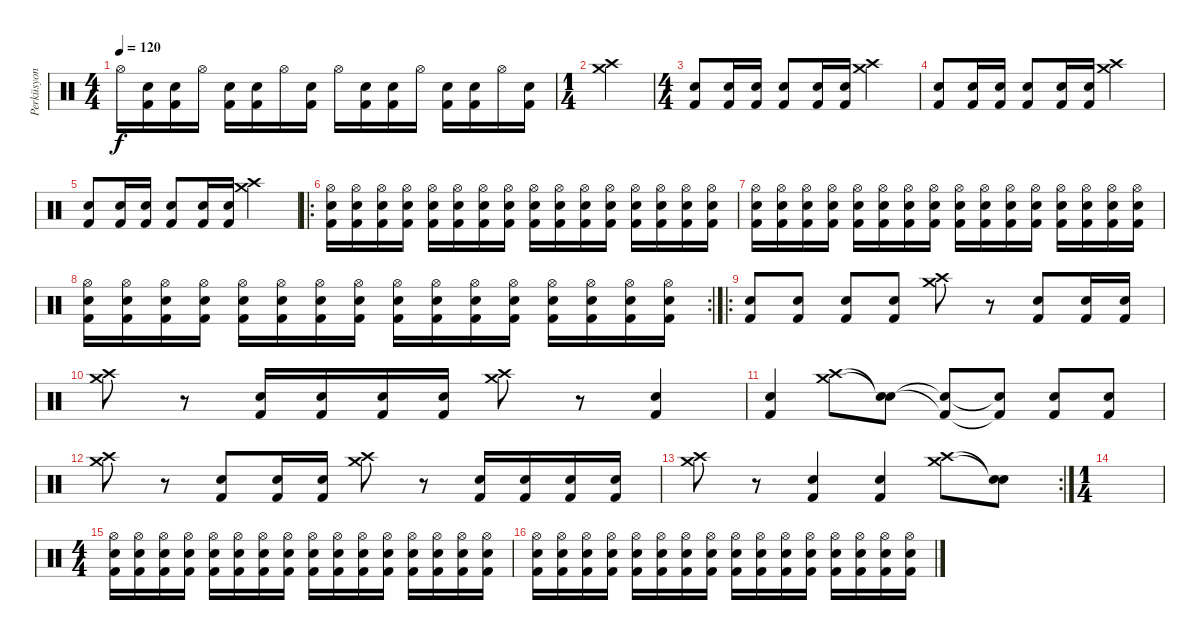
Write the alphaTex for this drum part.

\track ("Perküsyon" "Perküsyon") {instrument percussion}
\staff {score}
\articulation defaults
\ts (4 4)
\tempo 120
\clef neutral
\ks c "Hi-Hat (open)".16{dy f}
("Snare (hit) 2" "Kick (hit) 2").16 ("Snare (hit) 2" "Kick (hit) 2").16 "Hi-Hat (open)".16 ("Snare (hit) 2" "Kick (hit) 2").16 ("Snare (hit) 2" "Kick (hit) 2").16 "Hi-Hat (open)".16 ("Snare (hit) 2" "Kick (hit) 2").16 "Hi-Hat (open)".16 ("Snare (hit) 2" "Kick (hit) 2").16 ("Snare (hit) 2" "Kick (hit) 2").16 "Hi-Hat (open)".16 ("Snare (hit) 2" "Kick (hit) 2").16 ("Snare (hit) 2" "Kick (hit) 2").16 "Hi-Hat (open)".16 ("Snare (hit) 2" "Kick (hit) 2").16 |
\ts (1 4)
("Crash medium (hit)" "Crash high (hit)").4 |
\ts (4 4)
("Kick (hit) 2" "Snare (hit) 2").8 ("Kick (hit) 2" "Snare (hit) 2").16 ("Kick (hit) 2" "Snare (hit) 2").16 ("Kick (hit) 2" "Snare (hit) 2").8 ("Kick (hit) 2" "Snare (hit) 2").16 ("Kick (hit) 2" "Snare (hit) 2").16 ("Crash medium (hit)" "Crash high (hit)").2 |
("Kick (hit) 2" "Snare (hit) 2").8 ("Kick (hit) 2" "Snare (hit) 2").16 ("Kick (hit) 2" "Snare (hit) 2").16 ("Kick (hit) 2" "Snare (hit) 2").8 ("Kick (hit) 2" "Snare (hit) 2").16 ("Kick (hit) 2" "Snare (hit) 2").16 ("Crash medium (hit)" "Crash high (hit)").2 |
("Kick (hit) 2" "Snare (hit) 2").8 ("Kick (hit) 2" "Snare (hit) 2").16 ("Kick (hit) 2" "Snare (hit) 2").16 ("Kick (hit) 2" "Snare (hit) 2").8 ("Kick (hit) 2" "Snare (hit) 2").16 ("Kick (hit) 2" "Snare (hit) 2").16 ("Crash medium (hit)" "Crash high (hit)").2 |
\ro
("Hi-Hat (open)" "Snare (hit) 2" "Kick (hit) 2").16 ("Hi-Hat (open)" "Snare (hit) 2" "Kick (hit) 2").16 ("Hi-Hat (open)" "Snare (hit) 2" "Kick (hit) 2").16 ("Hi-Hat (open)" "Snare (hit) 2" "Kick (hit) 2").16 ("Hi-Hat (open)" "Snare (hit) 2" "Kick (hit) 2").16 ("Hi-Hat (open)" "Snare (hit) 2" "Kick (hit) 2").16 ("Hi-Hat (open)" "Snare (hit) 2" "Kick (hit) 2").16 ("Hi-Hat (open)" "Snare (hit) 2" "Kick (hit) 2").16 ("Hi-Hat (open)" "Snare (hit) 2" "Kick (hit) 2").16 ("Hi-Hat (open)" "Snare (hit) 2" "Kick (hit) 2").16 ("Hi-Hat (open)" "Snare (hit) 2" "Kick (hit) 2").16 ("Hi-Hat (open)" "Snare (hit) 2" "Kick (hit) 2").16 ("Hi-Hat (open)" "Snare (hit) 2" "Kick (hit) 2").16 ("Hi-Hat (open)" "Snare (hit) 2" "Kick (hit) 2").16 ("Hi-Hat (open)" "Snare (hit) 2" "Kick (hit) 2").16 ("Hi-Hat (open)" "Snare (hit) 2" "Kick (hit) 2").16 |
("Hi-Hat (open)" "Snare (hit) 2" "Kick (hit) 2").16 ("Hi-Hat (open)" "Snare (hit) 2" "Kick (hit) 2").16 ("Hi-Hat (open)" "Snare (hit) 2" "Kick (hit) 2").16 ("Hi-Hat (open)" "Snare (hit) 2" "Kick (hit) 2").16 ("Hi-Hat (open)" "Snare (hit) 2" "Kick (hit) 2").16 ("Hi-Hat (open)" "Snare (hit) 2" "Kick (hit) 2").16 ("Hi-Hat (open)" "Snare (hit) 2" "Kick (hit) 2").16 ("Hi-Hat (open)" "Snare (hit) 2" "Kick (hit) 2").16 ("Hi-Hat (open)" "Snare (hit) 2" "Kick (hit) 2").16 ("Hi-Hat (open)" "Snare (hit) 2" "Kick (hit) 2").16 ("Hi-Hat (open)" "Snare (hit) 2" "Kick (hit) 2").16 ("Hi-Hat (open)" "Snare (hit) 2" "Kick (hit) 2").16 ("Hi-Hat (open)" "Snare (hit) 2" "Kick (hit) 2").16 ("Hi-Hat (open)" "Snare (hit) 2" "Kick (hit) 2").16 ("Hi-Hat (open)" "Snare (hit) 2" "Kick (hit) 2").16 ("Hi-Hat (open)" "Snare (hit) 2" "Kick (hit) 2").16 |
\rc 2
("Hi-Hat (open)" "Snare (hit) 2" "Kick (hit) 2").16 ("Hi-Hat (open)" "Snare (hit) 2" "Kick (hit) 2").16 ("Hi-Hat (open)" "Snare (hit) 2" "Kick (hit) 2").16 ("Hi-Hat (open)" "Snare (hit) 2" "Kick (hit) 2").16 ("Hi-Hat (open)" "Snare (hit) 2" "Kick (hit) 2").16 ("Hi-Hat (open)" "Snare (hit) 2" "Kick (hit) 2").16 ("Hi-Hat (open)" "Snare (hit) 2" "Kick (hit) 2").16 ("Hi-Hat (open)" "Snare (hit) 2" "Kick (hit) 2").16 ("Hi-Hat (open)" "Snare (hit) 2" "Kick (hit) 2").16 ("Hi-Hat (open)" "Snare (hit) 2" "Kick (hit) 2").16 ("Hi-Hat (open)" "Snare (hit) 2" "Kick (hit) 2").16 ("Hi-Hat (open)" "Snare (hit) 2" "Kick (hit) 2").16 ("Hi-Hat (open)" "Snare (hit) 2" "Kick (hit) 2").16 ("Hi-Hat (open)" "Snare (hit) 2" "Kick (hit) 2").16 ("Hi-Hat (open)" "Snare (hit) 2" "Kick (hit) 2").16 ("Hi-Hat (open)" "Snare (hit) 2" "Kick (hit) 2").16 |
\ro
("Kick (hit) 2" "Snare (hit) 2").8 ("Kick (hit) 2" "Snare (hit) 2").8 ("Kick (hit) 2" "Snare (hit) 2").8 ("Kick (hit) 2" "Snare (hit) 2").8 ("Crash high (hit)" "Crash medium (hit)").8 r.8 ("Kick (hit) 2" "Snare (hit) 2").8 ("Kick (hit) 2" "Snare (hit) 2").16 ("Kick (hit) 2" "Snare (hit) 2").16 |
("Crash high (hit)" "Crash medium (hit)").8 r.8 ("Snare (hit) 2" "Kick (hit) 2").16 ("Snare (hit) 2" "Kick (hit) 2").16 ("Snare (hit) 2" "Kick (hit) 2").16 ("Snare (hit) 2" "Kick (hit) 2").16 ("Crash high (hit)" "Crash medium (hit)").8 r.8 ("Snare (hit) 2" "Kick (hit) 2").4 |
("Snare (hit) 2" "Kick (hit) 2").4 ("Crash high (hit)" "Crash medium (hit)").8 ("Snare (hit)"{t} "Snare (hit)"{t}).8 ("Kick (hit) 2"{t} "Snare (hit) 2"{t}).8 ("Kick (hit) 2"{t} "Snare (hit) 2"{t}).8 ("Kick (hit) 2" "Snare (hit) 2").8 ("Kick (hit) 2" "Snare (hit) 2").8 |
("Crash high (hit)" "Crash medium (hit)").8 r.8 ("Kick (hit) 2" "Snare (hit) 2").8 ("Kick (hit) 2" "Snare (hit) 2").16 ("Kick (hit) 2" "Snare (hit) 2").16 ("Crash high (hit)" "Crash medium (hit)").8 r.8 ("Kick (hit) 2" "Snare (hit) 2").16 ("Kick (hit) 2" "Snare (hit) 2").16 ("Kick (hit) 2" "Snare (hit) 2").16 ("Kick (hit) 2" "Snare (hit) 2").16 |
\rc 2
("Crash high (hit)" "Crash medium (hit)").8 r.8 ("Snare (hit) 2" "Kick (hit) 2").4 ("Snare (hit) 2" "Kick (hit) 2").4 ("Crash high (hit)" "Crash medium (hit)").8 ("Snare (hit)"{t} "Snare (hit)"{t}).8 |
\ts (1 4)
|
\ts (4 4)
("Hi-Hat (open)" "Snare (hit) 2" "Kick (hit) 2").16 ("Hi-Hat (open)" "Snare (hit) 2" "Kick (hit) 2").16 ("Hi-Hat (open)" "Snare (hit) 2" "Kick (hit) 2").16 ("Hi-Hat (open)" "Snare (hit) 2" "Kick (hit) 2").16 ("Hi-Hat (open)" "Snare (hit) 2" "Kick (hit) 2").16 ("Hi-Hat (open)" "Snare (hit) 2" "Kick (hit) 2").16 ("Hi-Hat (open)" "Snare (hit) 2" "Kick (hit) 2").16 ("Hi-Hat (open)" "Snare (hit) 2" "Kick (hit) 2").16 ("Hi-Hat (open)" "Snare (hit) 2" "Kick (hit) 2").16 ("Hi-Hat (open)" "Snare (hit) 2" "Kick (hit) 2").16 ("Hi-Hat (open)" "Snare (hit) 2" "Kick (hit) 2").16 ("Hi-Hat (open)" "Snare (hit) 2" "Kick (hit) 2").16 ("Hi-Hat (open)" "Snare (hit) 2" "Kick (hit) 2").16 ("Hi-Hat (open)" "Snare (hit) 2" "Kick (hit) 2").16 ("Hi-Hat (open)" "Snare (hit) 2" "Kick (hit) 2").16 ("Hi-Hat (open)" "Snare (hit) 2" "Kick (hit) 2").16 |
("Hi-Hat (open)" "Snare (hit) 2" "Kick (hit) 2").16 ("Hi-Hat (open)" "Snare (hit) 2" "Kick (hit) 2").16 ("Hi-Hat (open)" "Snare (hit) 2" "Kick (hit) 2").16 ("Hi-Hat (open)" "Snare (hit) 2" "Kick (hit) 2").16 ("Hi-Hat (open)" "Snare (hit) 2" "Kick (hit) 2").16 ("Hi-Hat (open)" "Snare (hit) 2" "Kick (hit) 2").16 ("Hi-Hat (open)" "Snare (hit) 2" "Kick (hit) 2").16 ("Hi-Hat (open)" "Snare (hit) 2" "Kick (hit) 2").16 ("Hi-Hat (open)" "Snare (hit) 2" "Kick (hit) 2").16 ("Hi-Hat (open)" "Snare (hit) 2" "Kick (hit) 2").16 ("Hi-Hat (open)" "Snare (hit) 2" "Kick (hit) 2").16 ("Hi-Hat (open)" "Snare (hit) 2" "Kick (hit) 2").16 ("Hi-Hat (open)" "Snare (hit) 2" "Kick (hit) 2").16 ("Hi-Hat (open)" "Snare (hit) 2" "Kick (hit) 2").16 ("Hi-Hat (open)" "Snare (hit) 2" "Kick (hit) 2").16 ("Hi-Hat (open)" "Snare (hit) 2" "Kick (hit) 2").16
